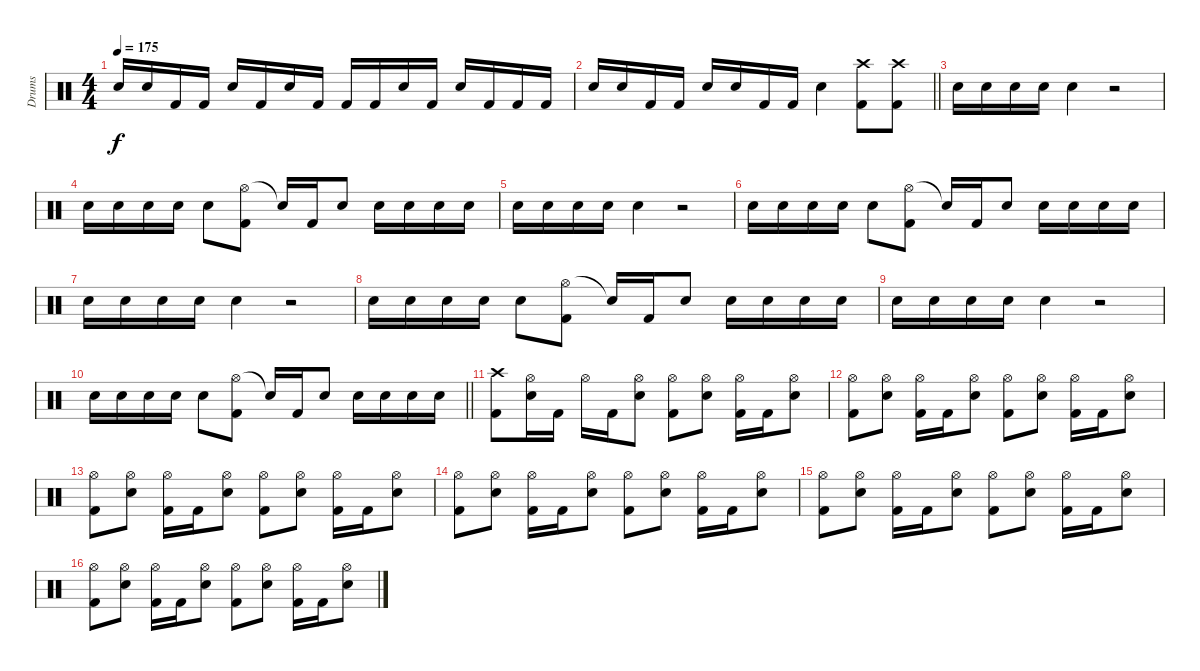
\track ("Drums" "Drums") {instrument percussion}
\staff {score}
\articulation defaults
\ts (4 4)
\tempo 175
\clef neutral
\ks c "Snare (hit) 2".16{dy f} "Snare (hit) 2".16 "Kick (hit) 2".16 "Kick (hit) 2".16 "Snare (hit) 2".16 "Kick (hit) 2".16 "Snare (hit) 2".16 "Kick (hit) 2".16 "Kick (hit) 2".16 "Kick (hit) 2".16 "Snare (hit) 2".16 "Kick (hit) 2".16 "Snare (hit) 2".16 "Kick (hit) 2".16 "Kick (hit) 2".16 "Kick (hit) 2".16
|
\barLineRight lightlight "Snare (hit) 2".16 "Snare (hit) 2".16 "Kick (hit) 2".16 "Kick (hit) 2".16 "Snare (hit) 2".16 "Snare (hit) 2".16 "Kick (hit) 2".16 "Kick (hit) 2".16 "Snare (hit) 2".4
("Crash high (hit)" "Kick (hit) 2").8 ("Crash high (hit)" "Kick (hit) 2").8 |
"Snare (hit) 2".16 "Snare (hit) 2".16 "Snare (hit) 2".16 "Snare (hit) 2".16 "Snare (hit) 2".4 r.2 |
"Snare (hit) 2".16 "Snare (hit) 2".16 "Snare (hit) 2".16 "Snare (hit) 2".16 "Snare (hit) 2".8 ("Hi-Hat (open)" "Kick (hit) 2").8 "Snare (hit)"{t}.16 "Kick (hit) 2".16 "Snare (hit) 2".8 "Snare (hit) 2".16 "Snare (hit) 2".16 "Snare (hit) 2".16 "Snare (hit) 2".16 |
"Snare (hit) 2".16 "Snare (hit) 2".16 "Snare (hit) 2".16 "Snare (hit) 2".16 "Snare (hit) 2".4 r.2 |
"Snare (hit) 2".16 "Snare (hit) 2".16 "Snare (hit) 2".16 "Snare (hit) 2".16 "Snare (hit) 2".8 ("Hi-Hat (open)" "Kick (hit) 2").8 "Snare (hit)"{t}.16 "Kick (hit) 2".16 "Snare (hit) 2".8 "Snare (hit) 2".16 "Snare (hit) 2".16 "Snare (hit) 2".16 "Snare (hit) 2".16 |
"Snare (hit) 2".16 "Snare (hit) 2".16 "Snare (hit) 2".16 "Snare (hit) 2".16 "Snare (hit) 2".4 r.2 |
"Snare (hit) 2".16 "Snare (hit) 2".16 "Snare (hit) 2".16 "Snare (hit) 2".16 "Snare (hit) 2".8 ("Hi-Hat (open)" "Kick (hit) 2").8 "Snare (hit)"{t}.16 "Kick (hit) 2".16 "Snare (hit) 2".8 "Snare (hit) 2".16 "Snare (hit) 2".16 "Snare (hit) 2".16 "Snare (hit) 2".16 |
"Snare (hit) 2".16 "Snare (hit) 2".16 "Snare (hit) 2".16 "Snare (hit) 2".16 "Snare (hit) 2".4 r.2 |
\barLineRight lightlight "Snare (hit) 2".16 "Snare (hit) 2".16 "Snare (hit) 2".16 "Snare (hit) 2".16 "Snare (hit) 2".8
("Hi-Hat (open)" "Kick (hit) 2").8 "Snare (hit)"{t}.16 "Kick (hit) 2".16 "Snare (hit) 2".8 "Snare (hit) 2".16 "Snare (hit) 2".16 "Snare (hit) 2".16 "Snare (hit) 2".16 |
("Crash high (hit)" "Kick (hit) 2").8 ("Hi-Hat (open)" "Snare (hit) 2").16 "Kick (hit) 2".16 "Hi-Hat (open)".16 "Kick (hit) 2".16 ("Hi-Hat (open)" "Snare (hit) 2").8 ("Hi-Hat (open)" "Kick (hit) 2").8 ("Hi-Hat (open)" "Snare (hit) 2").8 ("Hi-Hat (open)" "Kick (hit) 2").16 "Kick (hit) 2".16 ("Hi-Hat (open)" "Snare (hit) 2").8 |
("Hi-Hat (open)" "Kick (hit) 2").8 ("Hi-Hat (open)" "Snare (hit) 2").8 ("Hi-Hat (open)" "Kick (hit) 2").16 "Kick (hit) 2".16 ("Hi-Hat (open)" "Snare (hit) 2").8 ("Hi-Hat (open)" "Kick (hit) 2").8 ("Hi-Hat (open)" "Snare (hit) 2").8 ("Hi-Hat (open)" "Kick (hit) 2").16 "Kick (hit) 2".16 ("Hi-Hat (open)" "Snare (hit) 2").8 |
("Hi-Hat (open)" "Kick (hit) 2").8 ("Hi-Hat (open)" "Snare (hit) 2").8 ("Hi-Hat (open)" "Kick (hit) 2").16 "Kick (hit) 2".16 ("Hi-Hat (open)" "Snare (hit) 2").8 ("Hi-Hat (open)" "Kick (hit) 2").8 ("Hi-Hat (open)" "Snare (hit) 2").8 ("Hi-Hat (open)" "Kick (hit) 2").16 "Kick (hit) 2".16 ("Hi-Hat (open)" "Snare (hit) 2").8 |
("Hi-Hat (open)" "Kick (hit) 2").8 ("Hi-Hat (open)" "Snare (hit) 2").8 ("Hi-Hat (open)" "Kick (hit) 2").16 "Kick (hit) 2".16 ("Hi-Hat (open)" "Snare (hit) 2").8 ("Hi-Hat (open)" "Kick (hit) 2").8 ("Hi-Hat (open)" "Snare (hit) 2").8 ("Hi-Hat (open)" "Kick (hit) 2").16 "Kick (hit) 2".16 ("Hi-Hat (open)" "Snare (hit) 2").8 |
("Hi-Hat (open)" "Kick (hit) 2").8 ("Hi-Hat (open)" "Snare (hit) 2").8 ("Hi-Hat (open)" "Kick (hit) 2").16 "Kick (hit) 2".16 ("Hi-Hat (open)" "Snare (hit) 2").8 ("Hi-Hat (open)" "Kick (hit) 2").8 ("Hi-Hat (open)" "Snare (hit) 2").8 ("Hi-Hat (open)" "Kick (hit) 2").16 "Kick (hit) 2".16 ("Hi-Hat (open)" "Snare (hit) 2").8 |
("Hi-Hat (open)" "Kick (hit) 2").8 ("Hi-Hat (open)" "Snare (hit) 2").8 ("Hi-Hat (open)" "Kick (hit) 2").16 "Kick (hit) 2".16 ("Hi-Hat (open)" "Snare (hit) 2").8 ("Hi-Hat (open)" "Kick (hit) 2").8 ("Hi-Hat (open)" "Snare (hit) 2").8 ("Hi-Hat (open)" "Kick (hit) 2").16 "Kick (hit) 2".16 ("Hi-Hat (open)" "Snare (hit) 2").8
